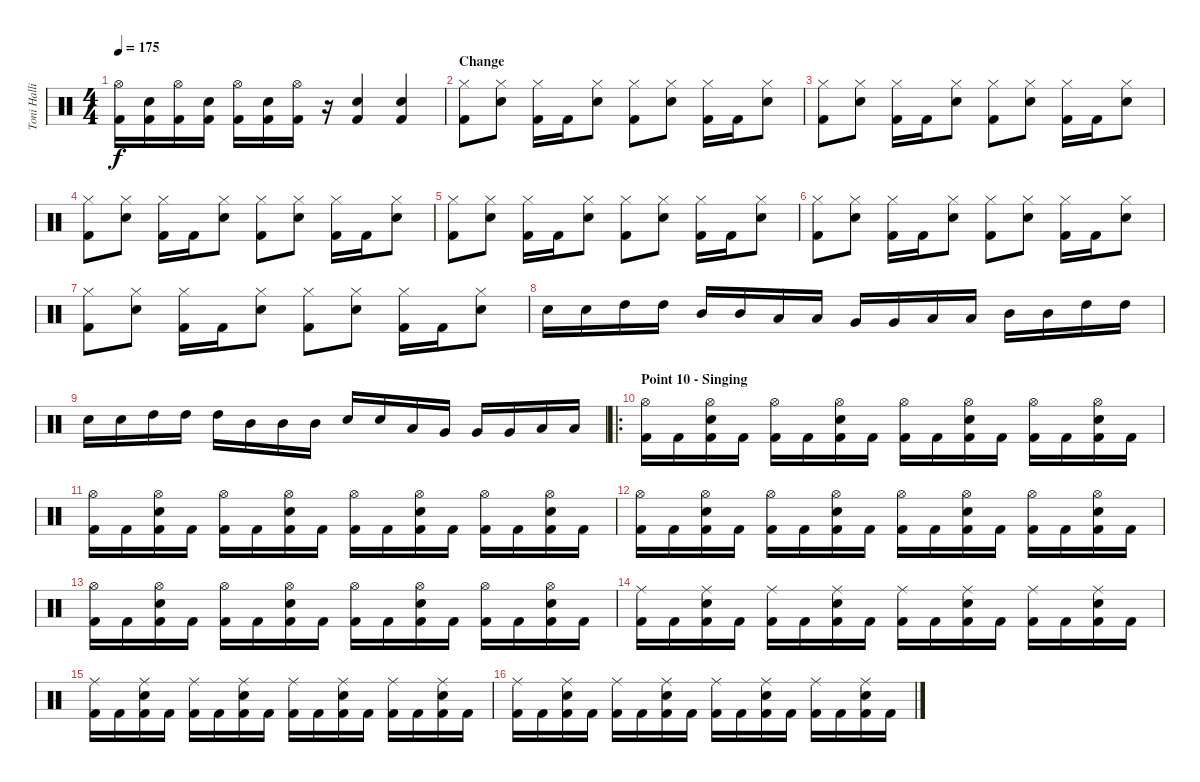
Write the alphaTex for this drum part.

\track ("Toni Hallio" "Toni Halli") {instrument percussion}
\staff {score}
\articulation defaults
\ts (4 4)
\tempo 175
\clef neutral
\ks c
("Hi-Hat (open)" "Kick (hit) 2").16{dy f} ("Snare (hit) 2" "Kick (hit) 2").16 ("Hi-Hat (open)" "Kick (hit) 2").16 ("Snare (hit) 2" "Kick (hit) 2").16 ("Hi-Hat (open)" "Kick (hit) 2").16 ("Snare (hit) 2" "Kick (hit) 2").16 ("Hi-Hat (open)" "Kick (hit) 2").16 r.16 ("Snare (hit) 2" "Kick (hit) 2").4 ("Snare (hit) 2" "Kick (hit) 2").4 |
\section ("" "Change")
("Hi-Hat (closed)" "Kick (hit) 2").8 ("Hi-Hat (closed)" "Snare (hit) 2").8 ("Hi-Hat (closed)" "Kick (hit) 2").16 "Kick (hit) 2".16 ("Hi-Hat (closed)" "Snare (hit) 2").8 ("Hi-Hat (closed)" "Kick (hit) 2").8 ("Hi-Hat (closed)" "Snare (hit) 2").8 ("Hi-Hat (closed)" "Kick (hit) 2").16 "Kick (hit) 2".16 ("Hi-Hat (closed)" "Snare (hit) 2").8 |
("Hi-Hat (closed)" "Kick (hit) 2").8 ("Hi-Hat (closed)" "Snare (hit) 2").8 ("Hi-Hat (closed)" "Kick (hit) 2").16 "Kick (hit) 2".16 ("Hi-Hat (closed)" "Snare (hit) 2").8 ("Hi-Hat (closed)" "Kick (hit) 2").8 ("Hi-Hat (closed)" "Snare (hit) 2").8 ("Hi-Hat (closed)" "Kick (hit) 2").16 "Kick (hit) 2".16 ("Hi-Hat (closed)" "Snare (hit) 2").8 |
("Hi-Hat (closed)" "Kick (hit) 2").8 ("Hi-Hat (closed)" "Snare (hit) 2").8 ("Hi-Hat (closed)" "Kick (hit) 2").16 "Kick (hit) 2".16 ("Hi-Hat (closed)" "Snare (hit) 2").8 ("Hi-Hat (closed)" "Kick (hit) 2").8 ("Hi-Hat (closed)" "Snare (hit) 2").8 ("Hi-Hat (closed)" "Kick (hit) 2").16 "Kick (hit) 2".16 ("Hi-Hat (closed)" "Snare (hit) 2").8 |
("Hi-Hat (closed)" "Kick (hit) 2").8 ("Hi-Hat (closed)" "Snare (hit) 2").8 ("Hi-Hat (closed)" "Kick (hit) 2").16 "Kick (hit) 2".16 ("Hi-Hat (closed)" "Snare (hit) 2").8 ("Hi-Hat (closed)" "Kick (hit) 2").8 ("Hi-Hat (closed)" "Snare (hit) 2").8 ("Hi-Hat (closed)" "Kick (hit) 2").16 "Kick (hit) 2".16 ("Hi-Hat (closed)" "Snare (hit) 2").8 |
("Hi-Hat (closed)" "Kick (hit) 2").8 ("Hi-Hat (closed)" "Snare (hit) 2").8 ("Hi-Hat (closed)" "Kick (hit) 2").16 "Kick (hit) 2".16 ("Hi-Hat (closed)" "Snare (hit) 2").8 ("Hi-Hat (closed)" "Kick (hit) 2").8 ("Hi-Hat (closed)" "Snare (hit) 2").8 ("Hi-Hat (closed)" "Kick (hit) 2").16 "Kick (hit) 2".16 ("Hi-Hat (closed)" "Snare (hit) 2").8 |
("Hi-Hat (closed)" "Kick (hit) 2").8 ("Hi-Hat (closed)" "Snare (hit) 2").8 ("Hi-Hat (closed)" "Kick (hit) 2").16 "Kick (hit) 2".16 ("Hi-Hat (closed)" "Snare (hit) 2").8 ("Hi-Hat (closed)" "Kick (hit) 2").8 ("Hi-Hat (closed)" "Snare (hit) 2").8 ("Hi-Hat (closed)" "Kick (hit) 2").16 "Kick (hit) 2".16 ("Hi-Hat (closed)" "Snare (hit) 2").8 |
"Snare (hit) 2".16 "Snare (hit) 2".16 "High Tom (hit)".16 "High Tom (hit)".16 "Mid Tom (hit)".16 "Mid Tom (hit)".16 "Low Tom (hit)".16 "Low Tom (hit)".16 "Very Low Tom (hit)".16 "Very Low Tom (hit)".16 "Low Tom (hit)".16 "Low Tom (hit)".16 "Mid Tom (hit)".16 "Mid Tom (hit)".16 "High Tom (hit)".16 "High Tom (hit)".16 |
"Snare (hit) 2".16 "Snare (hit) 2".16 "High Tom (hit)".16 "High Tom (hit)".16 "High Tom (hit)".16 "Mid Tom (hit)".16 "Mid Tom (hit)".16 "Mid Tom (hit)".16 "Snare (hit) 2".16 "Snare (hit) 2".16 "Low Tom (hit)".16 "Very Low Tom (hit)".16 "Very Low Tom (hit)".16 "Very Low Tom (hit)".16 "Low Floor Tom (hit)".16 "Low Floor Tom (hit)".16 |
\ro
\section ("" "Point 10 - Singing ")
("Hi-Hat (open)" "Kick (hit) 2").16 "Kick (hit) 2".16 ("Hi-Hat (open)" "Snare (hit) 2" "Kick (hit) 2").16 "Kick (hit) 2".16 ("Hi-Hat (open)" "Kick (hit) 2").16 "Kick (hit) 2".16 ("Hi-Hat (open)" "Snare (hit) 2" "Kick (hit) 2").16 "Kick (hit) 2".16 ("Hi-Hat (open)" "Kick (hit) 2").16 "Kick (hit) 2".16 ("Hi-Hat (open)" "Snare (hit) 2" "Kick (hit) 2").16 "Kick (hit) 2".16 ("Hi-Hat (open)" "Kick (hit) 2").16 "Kick (hit) 2".16 ("Hi-Hat (open)" "Snare (hit) 2" "Kick (hit) 2").16 "Kick (hit) 2".16 |
("Hi-Hat (open)" "Kick (hit) 2").16 "Kick (hit) 2".16 ("Hi-Hat (open)" "Snare (hit) 2" "Kick (hit) 2").16 "Kick (hit) 2".16 ("Hi-Hat (open)" "Kick (hit) 2").16 "Kick (hit) 2".16 ("Hi-Hat (open)" "Snare (hit) 2" "Kick (hit) 2").16 "Kick (hit) 2".16 ("Hi-Hat (open)" "Kick (hit) 2").16 "Kick (hit) 2".16 ("Hi-Hat (open)" "Snare (hit) 2" "Kick (hit) 2").16 "Kick (hit) 2".16 ("Hi-Hat (open)" "Kick (hit) 2").16 "Kick (hit) 2".16 ("Hi-Hat (open)" "Snare (hit) 2" "Kick (hit) 2").16 "Kick (hit) 2".16 |
("Hi-Hat (open)" "Kick (hit) 2").16 "Kick (hit) 2".16 ("Hi-Hat (open)" "Snare (hit) 2" "Kick (hit) 2").16 "Kick (hit) 2".16 ("Hi-Hat (open)" "Kick (hit) 2").16 "Kick (hit) 2".16 ("Hi-Hat (open)" "Snare (hit) 2" "Kick (hit) 2").16 "Kick (hit) 2".16 ("Hi-Hat (open)" "Kick (hit) 2").16 "Kick (hit) 2".16 ("Hi-Hat (open)" "Snare (hit) 2" "Kick (hit) 2").16 "Kick (hit) 2".16 ("Hi-Hat (open)" "Kick (hit) 2").16 "Kick (hit) 2".16 ("Hi-Hat (open)" "Snare (hit) 2" "Kick (hit) 2").16 "Kick (hit) 2".16 |
("Hi-Hat (open)" "Kick (hit) 2").16 "Kick (hit) 2".16 ("Hi-Hat (open)" "Snare (hit) 2" "Kick (hit) 2").16 "Kick (hit) 2".16 ("Hi-Hat (open)" "Kick (hit) 2").16 "Kick (hit) 2".16 ("Hi-Hat (open)" "Snare (hit) 2" "Kick (hit) 2").16 "Kick (hit) 2".16 ("Hi-Hat (open)" "Kick (hit) 2").16 "Kick (hit) 2".16 ("Hi-Hat (open)" "Snare (hit) 2" "Kick (hit) 2").16 "Kick (hit) 2".16 ("Hi-Hat (open)" "Kick (hit) 2").16 "Kick (hit) 2".16 ("Hi-Hat (open)" "Snare (hit) 2" "Kick (hit) 2").16 "Kick (hit) 2".16 |
("Ride (middle)" "Kick (hit) 2").16 "Kick (hit) 2".16 ("Ride (middle)" "Snare (hit) 2" "Kick (hit) 2").16 "Kick (hit) 2".16 ("Ride (middle)" "Kick (hit) 2").16 "Kick (hit) 2".16 ("Ride (middle)" "Snare (hit) 2" "Kick (hit) 2").16 "Kick (hit) 2".16 ("Ride (middle)" "Kick (hit) 2").16 "Kick (hit) 2".16 ("Ride (middle)" "Snare (hit) 2" "Kick (hit) 2").16 "Kick (hit) 2".16 ("Ride (middle)" "Kick (hit) 2").16 "Kick (hit) 2".16 ("Ride (middle)" "Snare (hit) 2" "Kick (hit) 2").16 "Kick (hit) 2".16 |
("Ride (middle)" "Kick (hit) 2").16 "Kick (hit) 2".16 ("Ride (middle)" "Snare (hit) 2" "Kick (hit) 2").16 "Kick (hit) 2".16 ("Ride (middle)" "Kick (hit) 2").16 "Kick (hit) 2".16 ("Ride (middle)" "Snare (hit) 2" "Kick (hit) 2").16 "Kick (hit) 2".16 ("Ride (middle)" "Kick (hit) 2").16 "Kick (hit) 2".16 ("Ride (middle)" "Snare (hit) 2" "Kick (hit) 2").16 "Kick (hit) 2".16 ("Ride (middle)" "Kick (hit) 2").16 "Kick (hit) 2".16 ("Ride (middle)" "Snare (hit) 2" "Kick (hit) 2").16 "Kick (hit) 2".16 |
("Ride (middle)" "Kick (hit) 2").16 "Kick (hit) 2".16 ("Ride (middle)" "Snare (hit) 2" "Kick (hit) 2").16 "Kick (hit) 2".16 ("Ride (middle)" "Kick (hit) 2").16 "Kick (hit) 2".16 ("Ride (middle)" "Snare (hit) 2" "Kick (hit) 2").16 "Kick (hit) 2".16 ("Ride (middle)" "Kick (hit) 2").16 "Kick (hit) 2".16 ("Ride (middle)" "Snare (hit) 2" "Kick (hit) 2").16 "Kick (hit) 2".16 ("Ride (middle)" "Kick (hit) 2").16 "Kick (hit) 2".16 ("Ride (middle)" "Snare (hit) 2" "Kick (hit) 2").16 "Kick (hit) 2".16
